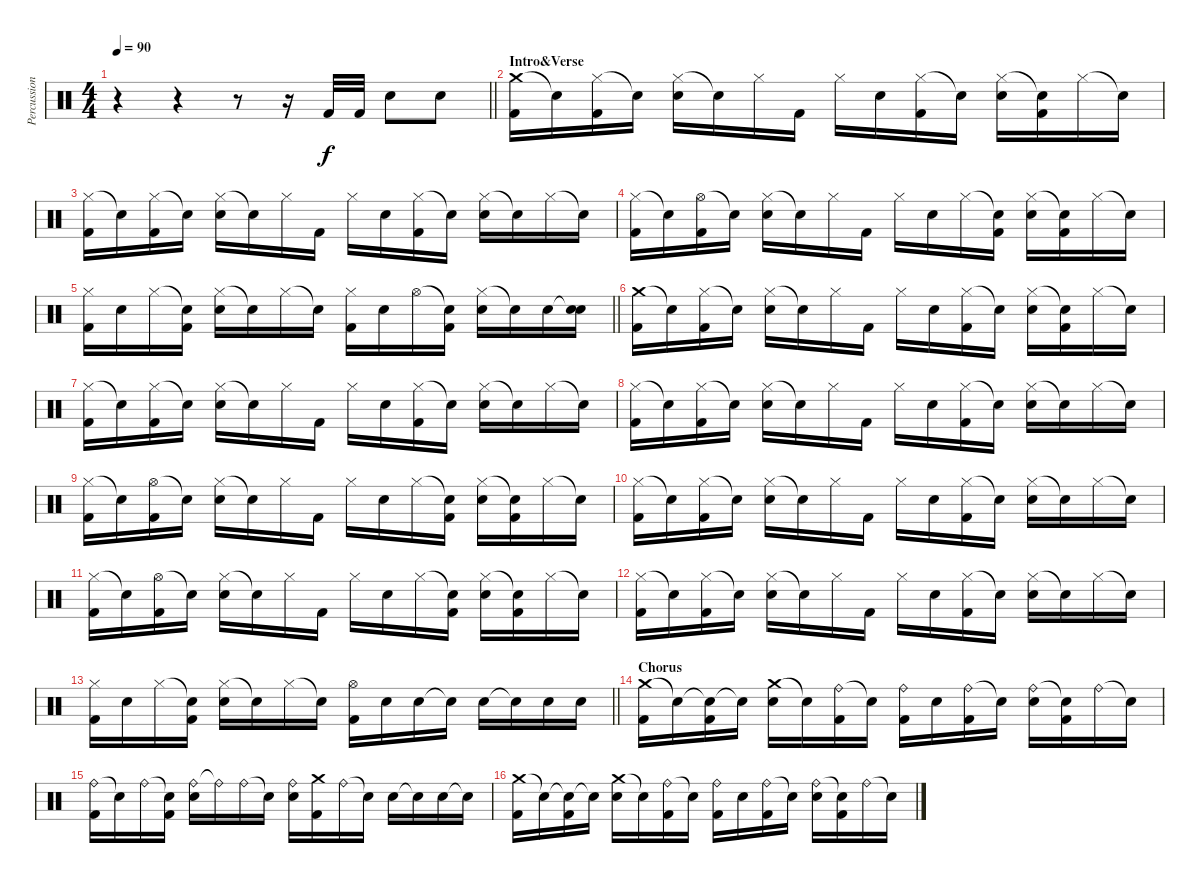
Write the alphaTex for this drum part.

\track ("Percussion" "Percussion") {instrument percussion}
\staff {score}
\articulation defaults
\ts (4 4)
\tempo 90
\clef neutral
\barLineRight lightlight
\ks c
r.4{dy f} r.4 r.8 r.16 "Kick (hit) 2".32 "Kick (hit) 2".32 "Snare (hit) 2".8 "Snare (hit) 2".8 |
\section ("" "Intro&Verse")
("Crash medium (hit)" "Kick (hit) 2").16 "Snare (hit)"{t}.16 ("Hi-Hat (closed)" "Kick (hit) 2").16 "Snare (hit)"{t}.16 ("Hi-Hat (closed)" "Snare (hit) 2").16 "Snare (hit)"{t}.16 "Hi-Hat (closed)".16 "Kick (hit) 2".16 "Hi-Hat (closed)".16 "Snare (hit) 2".16 ("Hi-Hat (closed)" "Kick (hit) 2").16 "Snare (hit)"{t}.16 ("Hi-Hat (closed)" "Snare (hit) 2").16 ("Snare (hit)"{t} "Kick (hit) 2").16 "Hi-Hat (closed)".16 "Snare (hit)"{t}.16 |
("Hi-Hat (closed)" "Kick (hit) 2").16 "Snare (hit)"{t}.16 ("Hi-Hat (closed)" "Kick (hit) 2").16 "Snare (hit)"{t}.16 ("Hi-Hat (closed)" "Snare (hit) 2").16 "Snare (hit)"{t}.16 "Hi-Hat (closed)".16 "Kick (hit) 2".16 "Hi-Hat (closed)".16 "Snare (hit) 2".16 ("Hi-Hat (closed)" "Kick (hit) 2").16 "Snare (hit)"{t}.16 ("Hi-Hat (closed)" "Snare (hit) 2").16 "Snare (hit)"{t}.16 "Hi-Hat (closed)".16 "Snare (hit)"{t}.16 |
("Hi-Hat (closed)" "Kick (hit) 2").16 "Snare (hit)"{t}.16 ("Hi-Hat (open)" "Kick (hit) 2").16 "Snare (hit)"{t}.16 ("Hi-Hat (closed)" "Snare (hit) 2").16 "Snare (hit)"{t}.16 "Hi-Hat (closed)".16 "Kick (hit) 2".16 "Hi-Hat (closed)".16 "Snare (hit) 2".16 "Hi-Hat (closed)".16 ("Snare (hit)"{t} "Kick (hit) 2").16 ("Hi-Hat (closed)" "Snare (hit) 2").16 ("Snare (hit)"{t} "Kick (hit) 2").16 "Hi-Hat (closed)".16 "Snare (hit)"{t}.16 |
\barLineRight lightlight
("Hi-Hat (closed)" "Kick (hit) 2").16 "Snare (hit) 2".16 "Hi-Hat (closed)".16 ("Snare (hit)"{t} "Kick (hit) 2").16 ("Hi-Hat (closed)" "Snare (hit) 2").16 "Snare (hit)"{t}.16 "Hi-Hat (closed)".16 "Snare (hit)"{t}.16 ("Hi-Hat (closed)" "Kick (hit) 2").16 "Snare (hit) 2".16 "Hi-Hat (open)".16 ("Snare (hit)"{t} "Kick (hit) 2").16 ("Hi-Hat (closed)" "Snare (hit) 2").16 "Snare (hit)"{t}.16 "Snare (hit) 2".16 ("Snare (hit)"{t} "Snare (hit) 2").16 |
("Crash medium (hit)" "Kick (hit) 2").16 "Snare (hit)"{t}.16 ("Hi-Hat (closed)" "Kick (hit) 2").16 "Snare (hit)"{t}.16 ("Hi-Hat (closed)" "Snare (hit) 2").16 "Snare (hit)"{t}.16 "Hi-Hat (closed)".16 "Kick (hit) 2".16 "Hi-Hat (closed)".16 "Snare (hit) 2".16 ("Hi-Hat (closed)" "Kick (hit) 2").16 "Snare (hit)"{t}.16 ("Hi-Hat (closed)" "Snare (hit) 2").16 ("Snare (hit)"{t} "Kick (hit) 2").16 "Hi-Hat (closed)".16 "Snare (hit)"{t}.16 |
("Hi-Hat (closed)" "Kick (hit) 2").16 "Snare (hit)"{t}.16 ("Hi-Hat (closed)" "Kick (hit) 2").16 "Snare (hit)"{t}.16 ("Hi-Hat (closed)" "Snare (hit) 2").16 "Snare (hit)"{t}.16 "Hi-Hat (closed)".16 "Kick (hit) 2".16 "Hi-Hat (closed)".16 "Snare (hit) 2".16 ("Hi-Hat (closed)" "Kick (hit) 2").16 "Snare (hit)"{t}.16 ("Hi-Hat (closed)" "Snare (hit) 2").16 "Snare (hit)"{t}.16 "Hi-Hat (closed)".16 "Snare (hit)"{t}.16 |
("Hi-Hat (closed)" "Kick (hit) 2").16 "Snare (hit)"{t}.16 ("Hi-Hat (closed)" "Kick (hit) 2").16 "Snare (hit)"{t}.16 ("Hi-Hat (closed)" "Snare (hit) 2").16 "Snare (hit)"{t}.16 "Hi-Hat (closed)".16 "Kick (hit) 2".16 "Hi-Hat (closed)".16 "Snare (hit) 2".16 ("Hi-Hat (closed)" "Kick (hit) 2").16 "Snare (hit)"{t}.16 ("Hi-Hat (closed)" "Snare (hit) 2").16 "Snare (hit)"{t}.16 "Hi-Hat (closed)".16 "Snare (hit)"{t}.16 |
("Hi-Hat (closed)" "Kick (hit) 2").16 "Snare (hit)"{t}.16 ("Hi-Hat (open)" "Kick (hit) 2").16 "Snare (hit)"{t}.16 ("Hi-Hat (closed)" "Snare (hit) 2").16 "Snare (hit)"{t}.16 "Hi-Hat (closed)".16 "Kick (hit) 2".16 "Hi-Hat (closed)".16 "Snare (hit) 2".16 "Hi-Hat (closed)".16 ("Snare (hit)"{t} "Kick (hit) 2").16 ("Hi-Hat (closed)" "Snare (hit) 2").16 ("Snare (hit)"{t} "Kick (hit) 2").16 "Hi-Hat (closed)".16 "Snare (hit)"{t}.16 |
("Hi-Hat (closed)" "Kick (hit) 2").16 "Snare (hit)"{t}.16 ("Hi-Hat (closed)" "Kick (hit) 2").16 "Snare (hit)"{t}.16 ("Hi-Hat (closed)" "Snare (hit) 2").16 "Snare (hit)"{t}.16 "Hi-Hat (closed)".16 "Kick (hit) 2".16 "Hi-Hat (closed)".16 "Snare (hit) 2".16 ("Hi-Hat (closed)" "Kick (hit) 2").16 "Snare (hit)"{t}.16 ("Hi-Hat (closed)" "Snare (hit) 2").16 "Snare (hit)"{t}.16 "Hi-Hat (closed)".16 "Snare (hit)"{t}.16 |
("Hi-Hat (closed)" "Kick (hit) 2").16 "Snare (hit)"{t}.16 ("Hi-Hat (open)" "Kick (hit) 2").16 "Snare (hit)"{t}.16 ("Hi-Hat (closed)" "Snare (hit) 2").16 "Snare (hit)"{t}.16 "Hi-Hat (closed)".16 "Kick (hit) 2".16 "Hi-Hat (closed)".16 "Snare (hit) 2".16 "Hi-Hat (closed)".16 ("Snare (hit)"{t} "Kick (hit) 2").16 ("Hi-Hat (closed)" "Snare (hit) 2").16 ("Snare (hit)"{t} "Kick (hit) 2").16 "Hi-Hat (closed)".16 "Snare (hit)"{t}.16 |
("Hi-Hat (closed)" "Kick (hit) 2").16 "Snare (hit)"{t}.16 ("Hi-Hat (closed)" "Kick (hit) 2").16 "Snare (hit)"{t}.16 ("Hi-Hat (closed)" "Snare (hit) 2").16 "Snare (hit)"{t}.16 "Hi-Hat (closed)".16 "Kick (hit) 2".16 "Hi-Hat (closed)".16 "Snare (hit) 2".16 ("Hi-Hat (closed)" "Kick (hit) 2").16 "Snare (hit)"{t}.16 ("Hi-Hat (closed)" "Snare (hit) 2").16 "Snare (hit)"{t}.16 "Hi-Hat (closed)".16 "Snare (hit)"{t}.16 |
\barLineRight lightlight
("Hi-Hat (closed)" "Kick (hit) 2").16 "Snare (hit) 2".16 "Hi-Hat (closed)".16 ("Snare (hit)"{t} "Kick (hit) 2").16 ("Hi-Hat (closed)" "Snare (hit) 2").16 "Snare (hit)"{t}.16 "Hi-Hat (closed)".16 "Snare (hit)"{t}.16 ("Hi-Hat (open)" "Kick (hit) 2").16 "Snare (hit) 2".16 "Snare (hit) 2".16 "Snare (hit)"{t}.16 "Snare (hit) 2".16 "Snare (hit) 2"{t}.16 "Snare (hit) 2".16 "Snare (hit) 2".16 |
\section ("" "Chorus")
("Crash medium (hit)" "Kick (hit) 2").16 "Snare (hit)"{t}.16 ("Snare (hit)"{t} "Kick (hit) 2").16 "Snare (hit)"{t}.16 ("Crash medium (hit)" "Snare (hit) 2").16 "Snare (hit)"{t}.16 ("Ride (bell)" "Kick (hit) 2").16 "Snare (hit)"{t}.16 ("Ride (bell)" "Kick (hit) 2").16 "Snare (hit) 2".16 ("Ride (bell)" "Kick (hit) 2").16 "Snare (hit)"{t}.16 ("Ride (bell)" "Snare (hit) 2").16 ("Snare (hit)"{t} "Kick (hit) 2").16 "Ride (bell)".16 "Snare (hit)"{t}.16 |
("Ride (bell)" "Kick (hit) 2").16 "Snare (hit)"{t}.16 "Ride (bell)".16 ("Snare (hit)"{t} "Kick (hit) 2").16 ("Ride (bell)" "Snare (hit) 2").16 "Ride (bell)"{t}.16 "Ride (bell)".16 "Snare (hit)"{t}.16 ("Ride (bell)" "Snare (hit) 2").16 ("Crash medium (hit)" "Kick (hit) 2").16 "Ride (bell)".16 "Snare (hit)"{t}.16 "Snare (hit) 2".16 "Snare (hit)"{t}.16 "Snare (hit) 2".16 "Snare (hit)"{t}.16 |
("Crash medium (hit)" "Kick (hit) 2").16 "Snare (hit)"{t}.16 ("Snare (hit)"{t} "Kick (hit) 2").16 "Snare (hit)"{t}.16 ("Crash medium (hit)" "Snare (hit) 2").16 "Snare (hit)"{t}.16 ("Ride (bell)" "Kick (hit) 2").16 "Snare (hit)"{t}.16 ("Ride (bell)" "Kick (hit) 2").16 "Snare (hit) 2".16 ("Ride (bell)" "Kick (hit) 2").16 "Snare (hit)"{t}.16 ("Ride (bell)" "Snare (hit) 2").16 ("Snare (hit)"{t} "Kick (hit) 2").16 "Ride (bell)".16 "Snare (hit)"{t}.16
